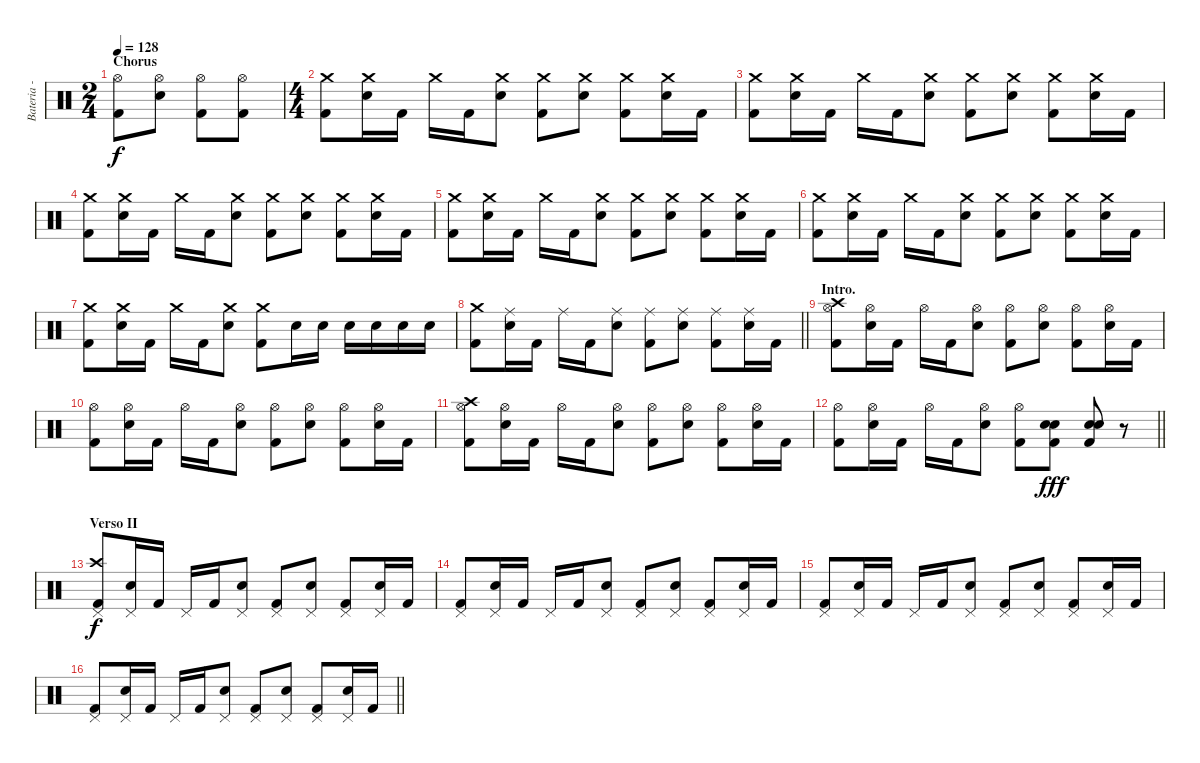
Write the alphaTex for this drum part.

\track ("Bateria - Larzon" "Bateria - ") {instrument percussion}
\staff {score}
\articulation defaults
\ts (2 4)
\section ("" "Chorus")
\tempo 128
\clef neutral
\ks c
("Kick (hit) 2" "Hi-Hat (open)").8{dy f} ("Electric Snare (hit)" "Hi-Hat (open)").8 ("Kick (hit) 2" "Hi-Hat (open)").8 ("Kick (hit) 2" "Hi-Hat (open)").8 |
\ts (4 4)
("Kick (hit) 2" "Crash medium (hit)").8 ("Electric Snare (hit)" "Crash medium (hit)").16 "Kick (hit) 2".16 "Crash medium (hit)".16 "Kick (hit) 2".16 ("Electric Snare (hit)" "Crash medium (hit)").8 ("Kick (hit) 2" "Crash medium (hit)").8 ("Electric Snare (hit)" "Crash medium (hit)").8 ("Kick (hit) 2" "Crash medium (hit)").8 ("Electric Snare (hit)" "Crash medium (hit)").16 "Kick (hit) 2".16 |
("Kick (hit) 2" "Crash medium (hit)").8 ("Electric Snare (hit)" "Crash medium (hit)").16 "Kick (hit) 2".16 "Crash medium (hit)".16 "Kick (hit) 2".16 ("Electric Snare (hit)" "Crash medium (hit)").8 ("Kick (hit) 2" "Crash medium (hit)").8 ("Electric Snare (hit)" "Crash medium (hit)").8 ("Kick (hit) 2" "Crash medium (hit)").8 ("Electric Snare (hit)" "Crash medium (hit)").16 "Kick (hit) 2".16 |
("Kick (hit) 2" "Crash medium (hit)").8 ("Electric Snare (hit)" "Crash medium (hit)").16 "Kick (hit) 2".16 "Crash medium (hit)".16 "Kick (hit) 2".16 ("Electric Snare (hit)" "Crash medium (hit)").8 ("Kick (hit) 2" "Crash medium (hit)").8 ("Electric Snare (hit)" "Crash medium (hit)").8 ("Kick (hit) 2" "Crash medium (hit)").8 ("Electric Snare (hit)" "Crash medium (hit)").16 "Kick (hit) 2".16 |
("Kick (hit) 2" "Crash medium (hit)").8 ("Electric Snare (hit)" "Crash medium (hit)").16 "Kick (hit) 2".16 "Crash medium (hit)".16 "Kick (hit) 2".16 ("Electric Snare (hit)" "Crash medium (hit)").8 ("Kick (hit) 2" "Crash medium (hit)").8 ("Electric Snare (hit)" "Crash medium (hit)").8 ("Kick (hit) 2" "Crash medium (hit)").8 ("Electric Snare (hit)" "Crash medium (hit)").16 "Kick (hit) 2".16 |
("Kick (hit) 2" "Crash medium (hit)").8 ("Electric Snare (hit)" "Crash medium (hit)").16 "Kick (hit) 2".16 "Crash medium (hit)".16 "Kick (hit) 2".16 ("Electric Snare (hit)" "Crash medium (hit)").8 ("Kick (hit) 2" "Crash medium (hit)").8 ("Electric Snare (hit)" "Crash medium (hit)").8 ("Kick (hit) 2" "Crash medium (hit)").8 ("Electric Snare (hit)" "Crash medium (hit)").16 "Kick (hit) 2".16 |
("Kick (hit) 2" "Crash medium (hit)").8 ("Electric Snare (hit)" "Crash medium (hit)").16 "Kick (hit) 2".16 "Crash medium (hit)".16 "Kick (hit) 2".16 ("Electric Snare (hit)" "Crash medium (hit)").8 ("Kick (hit) 2" "Crash medium (hit)").8 "Electric Snare (hit)".16 "Electric Snare (hit)".16 "Electric Snare (hit)".16 "Electric Snare (hit)".16 "Electric Snare (hit)".16 "Electric Snare (hit)".16 |
\barLineRight lightlight
("Kick (hit) 2" "Crash medium (hit)").8 ("Electric Snare (hit)" "Ride (middle)").16 "Kick (hit) 2".16 "Ride (middle)".16 "Kick (hit) 2".16 ("Electric Snare (hit)" "Ride (middle)").8 ("Kick (hit) 2" "Ride (middle)").8 ("Electric Snare (hit)" "Ride (middle)").8 ("Kick (hit) 2" "Ride (middle)").8 ("Electric Snare (hit)" "Ride (middle)").16 "Kick (hit) 2".16 |
\section ("" "Intro.")
("Kick (hit) 2" "Hi-Hat (open)" "Crash high (hit)").8 ("Electric Snare (hit)" "Hi-Hat (open)").16 "Kick (hit) 2".16 "Hi-Hat (open)".16 "Kick (hit) 2".16 ("Electric Snare (hit)" "Hi-Hat (open)").8 ("Kick (hit) 2" "Hi-Hat (open)").8 ("Electric Snare (hit)" "Hi-Hat (open)").8 ("Kick (hit) 2" "Hi-Hat (open)").8 ("Electric Snare (hit)" "Hi-Hat (open)").16 "Kick (hit) 2".16 |
("Kick (hit) 2" "Hi-Hat (open)").8 ("Electric Snare (hit)" "Hi-Hat (open)").16 "Kick (hit) 2".16 "Hi-Hat (open)".16 "Kick (hit) 2".16 ("Electric Snare (hit)" "Hi-Hat (open)").8 ("Kick (hit) 2" "Hi-Hat (open)").8 ("Electric Snare (hit)" "Hi-Hat (open)").8 ("Kick (hit) 2" "Hi-Hat (open)").8 ("Electric Snare (hit)" "Hi-Hat (open)").16 "Kick (hit) 2".16 |
("Kick (hit) 2" "Hi-Hat (open)" "Crash high (hit)").8 ("Electric Snare (hit)" "Hi-Hat (open)").16 "Kick (hit) 2".16 "Hi-Hat (open)".16 "Kick (hit) 2".16 ("Electric Snare (hit)" "Hi-Hat (open)").8 ("Kick (hit) 2" "Hi-Hat (open)").8 ("Electric Snare (hit)" "Hi-Hat (open)").8 ("Kick (hit) 2" "Hi-Hat (open)").8 ("Electric Snare (hit)" "Hi-Hat (open)").16 "Kick (hit) 2".16 |
\barLineRight lightlight
("Kick (hit) 2" "Hi-Hat (open)").8 ("Electric Snare (hit)" "Hi-Hat (open)").16 "Kick (hit) 2".16 "Hi-Hat (open)".16 "Kick (hit) 2".16 ("Electric Snare (hit)" "Hi-Hat (open)").8 ("Kick (hit) 2" "Hi-Hat (open)").8 ("Electric Snare (hit)" "Electric Snare (hit)" "Kick (hit) 2").8{dy fff} ("Electric Snare (hit)" "Electric Snare (hit)" "Kick (hit) 2").8 r.8 |
\section ("" "Verso II")
("Kick (hit) 2" "Pedal Hi-Hat (hit)" "Crash high (hit)").8{dy f} ("Electric Snare (hit)" "Pedal Hi-Hat (hit)").16 "Kick (hit) 2".16 "Pedal Hi-Hat (hit)".16 "Kick (hit) 2".16 ("Electric Snare (hit)" "Pedal Hi-Hat (hit)").8 ("Kick (hit) 2" "Pedal Hi-Hat (hit)").8 ("Electric Snare (hit)" "Pedal Hi-Hat (hit)").8 ("Kick (hit) 2" "Pedal Hi-Hat (hit)").8 ("Electric Snare (hit)" "Pedal Hi-Hat (hit)").16 "Kick (hit) 2".16 |
("Kick (hit) 2" "Pedal Hi-Hat (hit)").8 ("Electric Snare (hit)" "Pedal Hi-Hat (hit)").16 "Kick (hit) 2".16 "Pedal Hi-Hat (hit)".16 "Kick (hit) 2".16 ("Electric Snare (hit)" "Pedal Hi-Hat (hit)").8 ("Kick (hit) 2" "Pedal Hi-Hat (hit)").8 ("Electric Snare (hit)" "Pedal Hi-Hat (hit)").8 ("Kick (hit) 2" "Pedal Hi-Hat (hit)").8 ("Electric Snare (hit)" "Pedal Hi-Hat (hit)").16 "Kick (hit) 2".16 |
("Kick (hit) 2" "Pedal Hi-Hat (hit)").8 ("Electric Snare (hit)" "Pedal Hi-Hat (hit)").16 "Kick (hit) 2".16 "Pedal Hi-Hat (hit)".16 "Kick (hit) 2".16 ("Electric Snare (hit)" "Pedal Hi-Hat (hit)").8 ("Kick (hit) 2" "Pedal Hi-Hat (hit)").8 ("Electric Snare (hit)" "Pedal Hi-Hat (hit)").8 ("Kick (hit) 2" "Pedal Hi-Hat (hit)").8 ("Electric Snare (hit)" "Pedal Hi-Hat (hit)").16 "Kick (hit) 2".16 |
\barLineRight lightlight
("Kick (hit) 2" "Pedal Hi-Hat (hit)").8 ("Electric Snare (hit)" "Pedal Hi-Hat (hit)").16 "Kick (hit) 2".16 "Pedal Hi-Hat (hit)".16 "Kick (hit) 2".16 ("Electric Snare (hit)" "Pedal Hi-Hat (hit)").8 ("Kick (hit) 2" "Pedal Hi-Hat (hit)").8 ("Electric Snare (hit)" "Pedal Hi-Hat (hit)").8 ("Kick (hit) 2" "Pedal Hi-Hat (hit)").8 ("Electric Snare (hit)" "Pedal Hi-Hat (hit)").16 "Kick (hit) 2".16
